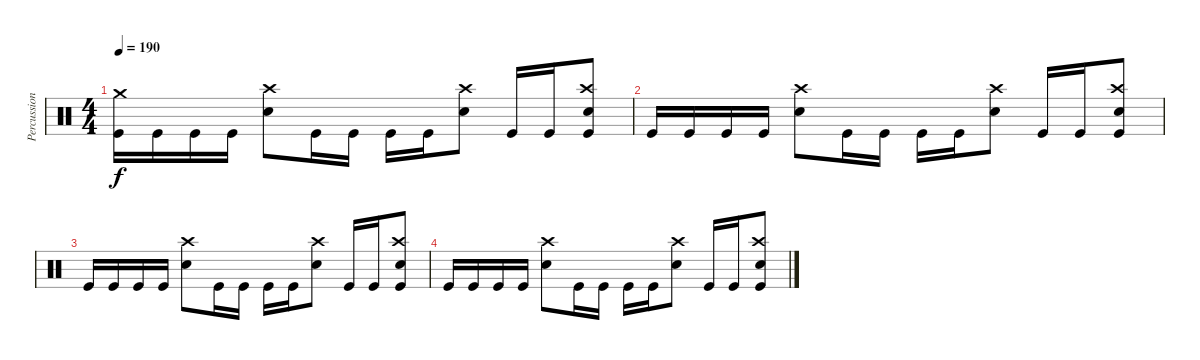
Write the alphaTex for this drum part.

\track ("Percussion" "Percussion") {instrument percussion}
\staff {score}
\articulation defaults
\ts (4 4)
\tempo 190
\clef neutral
\ks c
("Crash medium (hit)" "Kick (hit)").16{dy f} "Kick (hit)".16 "Kick (hit)".16 "Kick (hit)".16 ("Crash high (hit)" "Electric Snare (hit)").8 "Kick (hit)".16 "Kick (hit)".16 "Kick (hit)".16 "Kick (hit)".16 ("Crash high (hit)" "Electric Snare (hit)").8 "Kick (hit)".16 "Kick (hit)".16 ("Crash high (hit)" "Electric Snare (hit)" "Kick (hit)").8 |
"Kick (hit)".16 "Kick (hit)".16 "Kick (hit)".16 "Kick (hit)".16 ("Crash high (hit)" "Electric Snare (hit)").8 "Kick (hit)".16 "Kick (hit)".16 "Kick (hit)".16 "Kick (hit)".16 ("Crash high (hit)" "Electric Snare (hit)").8 "Kick (hit)".16 "Kick (hit)".16 ("Crash high (hit)" "Electric Snare (hit)" "Kick (hit)").8 |
"Kick (hit)".16 "Kick (hit)".16 "Kick (hit)".16 "Kick (hit)".16 ("Crash high (hit)" "Electric Snare (hit)").8 "Kick (hit)".16 "Kick (hit)".16 "Kick (hit)".16 "Kick (hit)".16 ("Crash high (hit)" "Electric Snare (hit)").8 "Kick (hit)".16 "Kick (hit)".16 ("Crash high (hit)" "Electric Snare (hit)" "Kick (hit)").8 |
"Kick (hit)".16 "Kick (hit)".16 "Kick (hit)".16 "Kick (hit)".16 ("Crash high (hit)" "Electric Snare (hit)").8 "Kick (hit)".16 "Kick (hit)".16 "Kick (hit)".16 "Kick (hit)".16 ("Crash high (hit)" "Electric Snare (hit)").8 "Kick (hit)".16 "Kick (hit)".16 ("Crash high (hit)" "Electric Snare (hit)" "Kick (hit)").8
